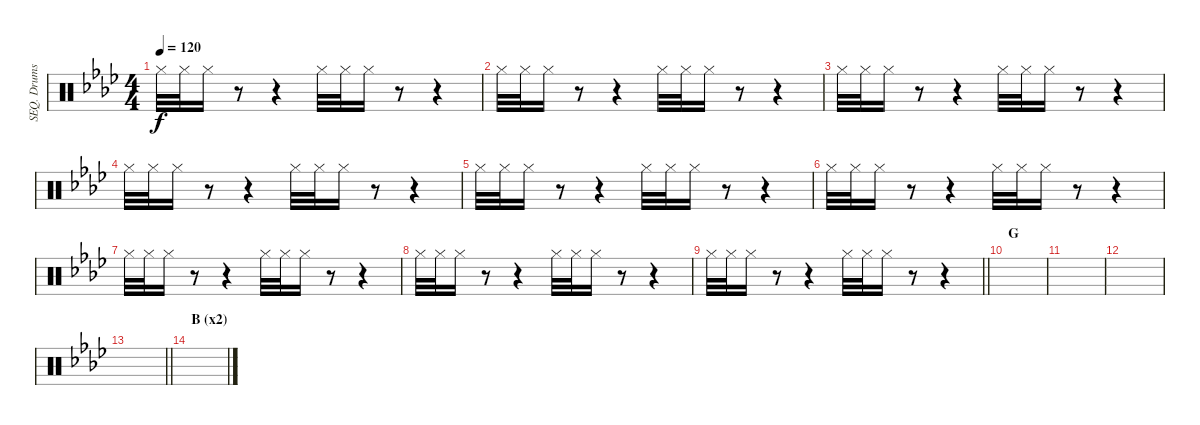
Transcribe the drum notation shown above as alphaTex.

\track ("SEQ. Drums" "SEQ. Drums") {instrument percussion}
\staff {score}
\articulation defaults
\ts (4 4)
\tempo 120
\clef neutral
\ks ab "Hi-Hat (closed)".32{dy f} "Hi-Hat (closed)".32 "Hi-Hat (closed)".16
r.8 r.4 "Hi-Hat (closed)".32 "Hi-Hat (closed)".32 "Hi-Hat (closed)".16 r.8 r.4 |
"Hi-Hat (closed)".32 "Hi-Hat (closed)".32 "Hi-Hat (closed)".16 r.8 r.4 "Hi-Hat (closed)".32 "Hi-Hat (closed)".32 "Hi-Hat (closed)".16 r.8 r.4 |
"Hi-Hat (closed)".32 "Hi-Hat (closed)".32 "Hi-Hat (closed)".16 r.8 r.4 "Hi-Hat (closed)".32 "Hi-Hat (closed)".32 "Hi-Hat (closed)".16 r.8 r.4 |
"Hi-Hat (closed)".32 "Hi-Hat (closed)".32 "Hi-Hat (closed)".16 r.8 r.4 "Hi-Hat (closed)".32 "Hi-Hat (closed)".32 "Hi-Hat (closed)".16 r.8 r.4 |
"Hi-Hat (closed)".32 "Hi-Hat (closed)".32 "Hi-Hat (closed)".16 r.8 r.4 "Hi-Hat (closed)".32 "Hi-Hat (closed)".32 "Hi-Hat (closed)".16 r.8 r.4 |
"Hi-Hat (closed)".32 "Hi-Hat (closed)".32 "Hi-Hat (closed)".16 r.8 r.4 "Hi-Hat (closed)".32 "Hi-Hat (closed)".32 "Hi-Hat (closed)".16 r.8 r.4 |
"Hi-Hat (closed)".32 "Hi-Hat (closed)".32 "Hi-Hat (closed)".16 r.8 r.4 "Hi-Hat (closed)".32 "Hi-Hat (closed)".32 "Hi-Hat (closed)".16 r.8 r.4 |
"Hi-Hat (closed)".32 "Hi-Hat (closed)".32 "Hi-Hat (closed)".16 r.8 r.4 "Hi-Hat (closed)".32 "Hi-Hat (closed)".32 "Hi-Hat (closed)".16 r.8 r.4 |
\barLineRight lightlight "Hi-Hat (closed)".32 "Hi-Hat (closed)".32 "Hi-Hat (closed)".16
r.8 r.4 "Hi-Hat (closed)".32 "Hi-Hat (closed)".32 "Hi-Hat (closed)".16 r.8 r.4 |
\section ("" "G")
|
|
|
\barLineRight lightlight
|
\section ("" "B (x2)")
